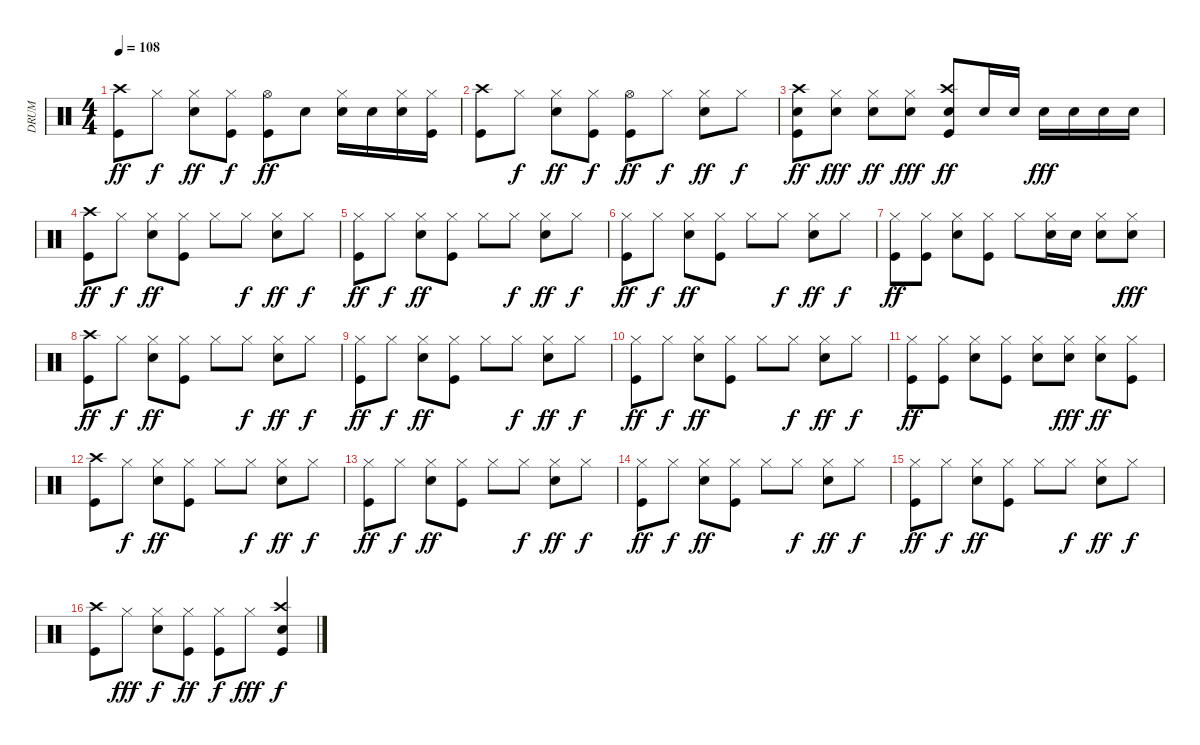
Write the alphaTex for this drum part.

\track ("DRUM" "DRUM") {instrument percussion}
\staff {score}
\articulation defaults
\ts (4 4)
\tempo 108
\clef neutral
\ks c
("Kick (hit)" "Crash high (hit)").8{dy ff} "Hi-Hat (closed)".8{dy f} ("Electric Snare (hit)" "Hi-Hat (closed)").8{dy ff} ("Kick (hit)" "Hi-Hat (closed)").8{dy f} ("Kick (hit)" "Hi-Hat (open)").8{dy ff} "Electric Snare (hit)".8 ("Electric Snare (hit)" "Hi-Hat (closed)").16 "Electric Snare (hit)".16 ("Electric Snare (hit)" "Hi-Hat (closed)").16 ("Kick (hit)" "Hi-Hat (closed)").16 |
("Kick (hit)" "Crash high (hit)").8 "Hi-Hat (closed)".8{dy f} ("Electric Snare (hit)" "Hi-Hat (closed)").8{dy ff} ("Kick (hit)" "Hi-Hat (closed)").8{dy f} ("Kick (hit)" "Hi-Hat (open)").8{dy ff} "Hi-Hat (closed)".8{dy f} ("Electric Snare (hit)" "Hi-Hat (closed)").8{dy ff} "Hi-Hat (closed)".8{dy f} |
("Kick (hit)" "Electric Snare (hit)" "Crash high (hit)").8{dy ff} ("Electric Snare (hit)" "Hi-Hat (closed)").8{dy fff} ("Electric Snare (hit)" "Hi-Hat (closed)").8{dy ff} ("Electric Snare (hit)" "Hi-Hat (closed)").8{dy fff} ("Kick (hit)" "Electric Snare (hit)" "Crash high (hit)").8{dy ff} "Electric Snare (hit)".16 "Electric Snare (hit)".16 "Electric Snare (hit)".16{dy fff} "Electric Snare (hit)".16 "Electric Snare (hit)".16 "Electric Snare (hit)".16 |
("Kick (hit)" "Crash high (hit)").8{dy ff} "Hi-Hat (closed)".8{dy f} ("Electric Snare (hit)" "Hi-Hat (closed)").8{dy ff} ("Kick (hit)" "Hi-Hat (closed)").8 "Hi-Hat (closed)".8 "Hi-Hat (closed)".8{dy f} ("Electric Snare (hit)" "Hi-Hat (closed)").8{dy ff} "Hi-Hat (closed)".8{dy f} |
("Kick (hit)" "Hi-Hat (closed)").8{dy ff} "Hi-Hat (closed)".8{dy f} ("Electric Snare (hit)" "Hi-Hat (closed)").8{dy ff} ("Kick (hit)" "Hi-Hat (closed)").8 "Hi-Hat (closed)".8 "Hi-Hat (closed)".8{dy f} ("Electric Snare (hit)" "Hi-Hat (closed)").8{dy ff} "Hi-Hat (closed)".8{dy f} |
("Kick (hit)" "Hi-Hat (closed)").8{dy ff} "Hi-Hat (closed)".8{dy f} ("Electric Snare (hit)" "Hi-Hat (closed)").8{dy ff} ("Kick (hit)" "Hi-Hat (closed)").8 "Hi-Hat (closed)".8 "Hi-Hat (closed)".8{dy f} ("Electric Snare (hit)" "Hi-Hat (closed)").8{dy ff} "Hi-Hat (closed)".8{dy f} |
("Kick (hit)" "Hi-Hat (closed)").8{dy ff} ("Kick (hit)" "Hi-Hat (closed)").8 ("Electric Snare (hit)" "Hi-Hat (closed)").8 ("Kick (hit)" "Hi-Hat (closed)").8 "Hi-Hat (closed)".8 ("Electric Snare (hit)" "Hi-Hat (closed)").16 "Electric Snare (hit)".16 ("Electric Snare (hit)" "Hi-Hat (closed)").8 ("Electric Snare (hit)" "Hi-Hat (closed)").8{dy fff} |
("Kick (hit)" "Crash high (hit)").8{dy ff} "Hi-Hat (closed)".8{dy f} ("Electric Snare (hit)" "Hi-Hat (closed)").8{dy ff} ("Kick (hit)" "Hi-Hat (closed)").8 "Hi-Hat (closed)".8 "Hi-Hat (closed)".8{dy f} ("Electric Snare (hit)" "Hi-Hat (closed)").8{dy ff} "Hi-Hat (closed)".8{dy f} |
("Kick (hit)" "Hi-Hat (closed)").8{dy ff} "Hi-Hat (closed)".8{dy f} ("Electric Snare (hit)" "Hi-Hat (closed)").8{dy ff} ("Kick (hit)" "Hi-Hat (closed)").8 "Hi-Hat (closed)".8 "Hi-Hat (closed)".8{dy f} ("Electric Snare (hit)" "Hi-Hat (closed)").8{dy ff} "Hi-Hat (closed)".8{dy f} |
("Kick (hit)" "Hi-Hat (closed)").8{dy ff} "Hi-Hat (closed)".8{dy f} ("Electric Snare (hit)" "Hi-Hat (closed)").8{dy ff} ("Kick (hit)" "Hi-Hat (closed)").8 "Hi-Hat (closed)".8 "Hi-Hat (closed)".8{dy f} ("Electric Snare (hit)" "Hi-Hat (closed)").8{dy ff} "Hi-Hat (closed)".8{dy f} |
("Kick (hit)" "Hi-Hat (closed)").8{dy ff} ("Kick (hit)" "Hi-Hat (closed)").8 ("Electric Snare (hit)" "Hi-Hat (closed)").8 ("Kick (hit)" "Hi-Hat (closed)").8 ("Electric Snare (hit)" "Hi-Hat (closed)").8 ("Electric Snare (hit)" "Hi-Hat (closed)").8{dy fff} ("Electric Snare (hit)" "Hi-Hat (closed)").8{dy ff} ("Kick (hit)" "Hi-Hat (closed)").8 |
("Kick (hit)" "Crash high (hit)").8 "Hi-Hat (closed)".8{dy f} ("Electric Snare (hit)" "Hi-Hat (closed)").8{dy ff} ("Kick (hit)" "Hi-Hat (closed)").8 "Hi-Hat (closed)".8 "Hi-Hat (closed)".8{dy f} ("Electric Snare (hit)" "Hi-Hat (closed)").8{dy ff} "Hi-Hat (closed)".8{dy f} |
("Kick (hit)" "Hi-Hat (closed)").8{dy ff} "Hi-Hat (closed)".8{dy f} ("Electric Snare (hit)" "Hi-Hat (closed)").8{dy ff} ("Kick (hit)" "Hi-Hat (closed)").8 "Hi-Hat (closed)".8 "Hi-Hat (closed)".8{dy f} ("Electric Snare (hit)" "Hi-Hat (closed)").8{dy ff} "Hi-Hat (closed)".8{dy f} |
("Kick (hit)" "Hi-Hat (closed)").8{dy ff} "Hi-Hat (closed)".8{dy f} ("Electric Snare (hit)" "Hi-Hat (closed)").8{dy ff} ("Kick (hit)" "Hi-Hat (closed)").8 "Hi-Hat (closed)".8 "Hi-Hat (closed)".8{dy f} ("Electric Snare (hit)" "Hi-Hat (closed)").8{dy ff} "Hi-Hat (closed)".8{dy f} |
("Kick (hit)" "Hi-Hat (closed)").8{dy ff} "Hi-Hat (closed)".8{dy f} ("Electric Snare (hit)" "Hi-Hat (closed)").8{dy ff} ("Kick (hit)" "Hi-Hat (closed)").8 "Hi-Hat (closed)".8 "Hi-Hat (closed)".8{dy f} ("Electric Snare (hit)" "Hi-Hat (closed)").8{dy ff} "Hi-Hat (closed)".8{dy f} |
("Kick (hit)" "Crash high (hit)").8 "Hi-Hat (closed)".8{dy fff} ("Electric Snare (hit)" "Hi-Hat (closed)").8{dy f} ("Kick (hit)" "Hi-Hat (closed)").8{dy ff} ("Kick (hit)" "Hi-Hat (closed)").8{dy f} "Hi-Hat (closed)".8{dy fff} ("Electric Snare (hit)" "Kick (hit)" "Crash high (hit)").4{dy f}
